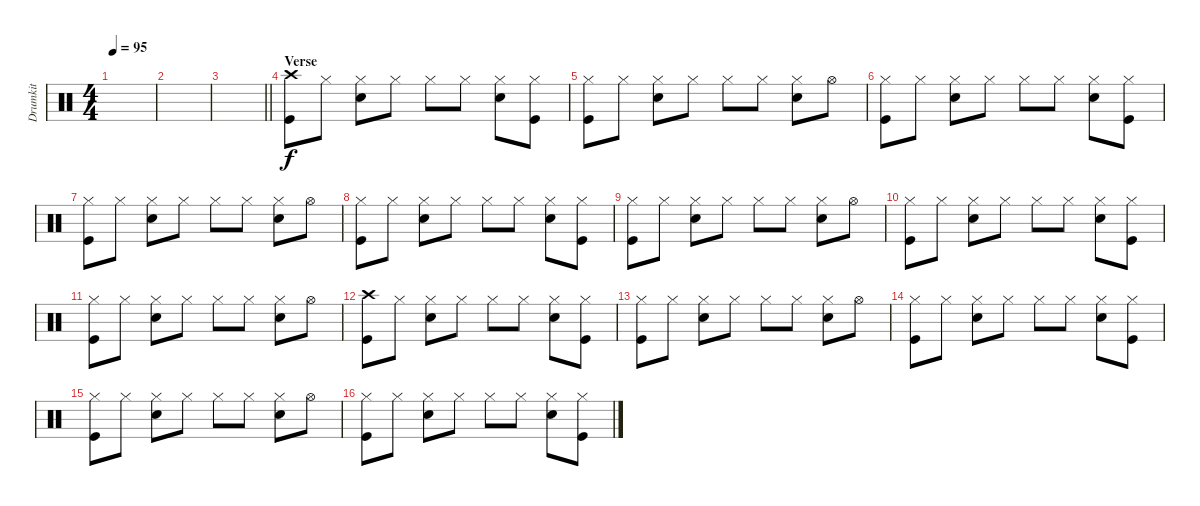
\track ("Drumkit" "Drumkit") {instrument percussion}
\staff {score}
\articulation defaults
\ts (4 4)
\tempo 95
\clef neutral
\ks c
|
|
\barLineRight lightlight
|
\section ("" "Verse")
("Kick (hit)" "Crash high (hit)").8 "Hi-Hat (closed)".8 ("Snare (hit) 2" "Hi-Hat (closed)").8 "Hi-Hat (closed)".8 "Hi-Hat (closed)".8 "Hi-Hat (closed)".8 ("Hi-Hat (closed)" "Snare (hit) 2").8 ("Kick (hit)" "Hi-Hat (closed)").8 |
("Kick (hit)" "Hi-Hat (closed)").8 "Hi-Hat (closed)".8 ("Snare (hit) 2" "Hi-Hat (closed)").8 "Hi-Hat (closed)".8 "Hi-Hat (closed)".8 "Hi-Hat (closed)".8 ("Hi-Hat (closed)" "Snare (hit) 2").8 "Hi-Hat (open)".8 |
("Kick (hit)" "Hi-Hat (closed)").8 "Hi-Hat (closed)".8 ("Snare (hit) 2" "Hi-Hat (closed)").8 "Hi-Hat (closed)".8 "Hi-Hat (closed)".8 "Hi-Hat (closed)".8 ("Hi-Hat (closed)" "Snare (hit) 2").8 ("Kick (hit)" "Hi-Hat (closed)").8 |
("Kick (hit)" "Hi-Hat (closed)").8 "Hi-Hat (closed)".8 ("Snare (hit) 2" "Hi-Hat (closed)").8 "Hi-Hat (closed)".8 "Hi-Hat (closed)".8 "Hi-Hat (closed)".8 ("Hi-Hat (closed)" "Snare (hit) 2").8 "Hi-Hat (open)".8 |
("Kick (hit)" "Hi-Hat (closed)").8 "Hi-Hat (closed)".8 ("Snare (hit) 2" "Hi-Hat (closed)").8 "Hi-Hat (closed)".8 "Hi-Hat (closed)".8 "Hi-Hat (closed)".8 ("Hi-Hat (closed)" "Snare (hit) 2").8 ("Kick (hit)" "Hi-Hat (closed)").8 |
("Kick (hit)" "Hi-Hat (closed)").8 "Hi-Hat (closed)".8 ("Snare (hit) 2" "Hi-Hat (closed)").8 "Hi-Hat (closed)".8 "Hi-Hat (closed)".8 "Hi-Hat (closed)".8 ("Hi-Hat (closed)" "Snare (hit) 2").8 "Hi-Hat (open)".8 |
("Kick (hit)" "Hi-Hat (closed)").8 "Hi-Hat (closed)".8 ("Snare (hit) 2" "Hi-Hat (closed)").8 "Hi-Hat (closed)".8 "Hi-Hat (closed)".8 "Hi-Hat (closed)".8 ("Hi-Hat (closed)" "Snare (hit) 2").8 ("Kick (hit)" "Hi-Hat (closed)").8 |
("Kick (hit)" "Hi-Hat (closed)").8 "Hi-Hat (closed)".8 ("Snare (hit) 2" "Hi-Hat (closed)").8 "Hi-Hat (closed)".8 "Hi-Hat (closed)".8 "Hi-Hat (closed)".8 ("Hi-Hat (closed)" "Snare (hit) 2").8 "Hi-Hat (open)".8 |
("Kick (hit)" "Crash high (hit)").8 "Hi-Hat (closed)".8 ("Snare (hit) 2" "Hi-Hat (closed)").8 "Hi-Hat (closed)".8 "Hi-Hat (closed)".8 "Hi-Hat (closed)".8 ("Hi-Hat (closed)" "Snare (hit) 2").8 ("Kick (hit)" "Hi-Hat (closed)").8 |
("Kick (hit)" "Hi-Hat (closed)").8 "Hi-Hat (closed)".8 ("Snare (hit) 2" "Hi-Hat (closed)").8 "Hi-Hat (closed)".8 "Hi-Hat (closed)".8 "Hi-Hat (closed)".8 ("Hi-Hat (closed)" "Snare (hit) 2").8 "Hi-Hat (open)".8 |
("Kick (hit)" "Hi-Hat (closed)").8 "Hi-Hat (closed)".8 ("Snare (hit) 2" "Hi-Hat (closed)").8 "Hi-Hat (closed)".8 "Hi-Hat (closed)".8 "Hi-Hat (closed)".8 ("Hi-Hat (closed)" "Snare (hit) 2").8 ("Kick (hit)" "Hi-Hat (closed)").8 |
("Kick (hit)" "Hi-Hat (closed)").8 "Hi-Hat (closed)".8 ("Snare (hit) 2" "Hi-Hat (closed)").8 "Hi-Hat (closed)".8 "Hi-Hat (closed)".8 "Hi-Hat (closed)".8 ("Hi-Hat (closed)" "Snare (hit) 2").8 "Hi-Hat (open)".8 |
("Kick (hit)" "Hi-Hat (closed)").8 "Hi-Hat (closed)".8 ("Snare (hit) 2" "Hi-Hat (closed)").8 "Hi-Hat (closed)".8 "Hi-Hat (closed)".8 "Hi-Hat (closed)".8 ("Hi-Hat (closed)" "Snare (hit) 2").8 ("Kick (hit)" "Hi-Hat (closed)").8
